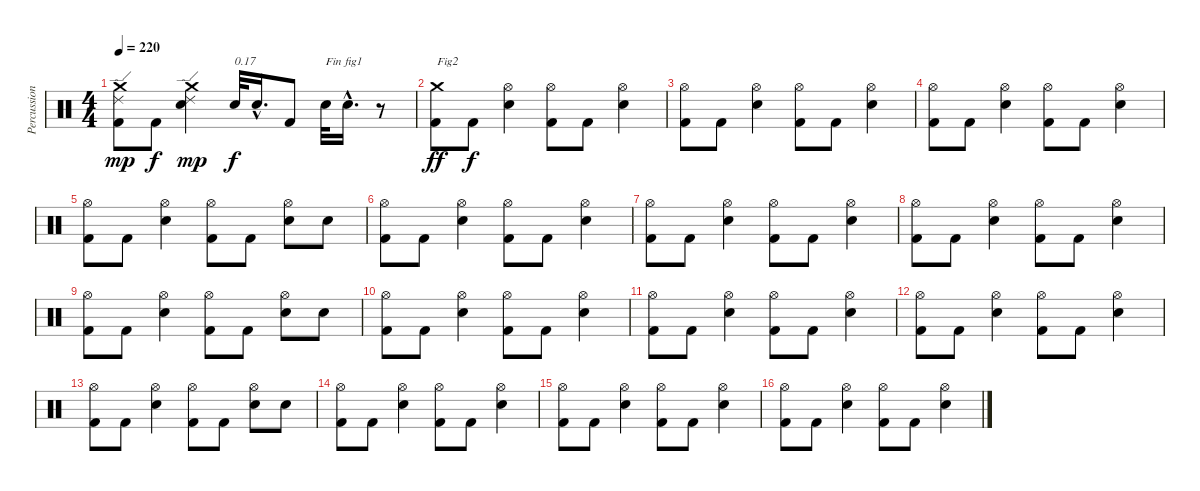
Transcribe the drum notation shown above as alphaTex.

\track ("Percussions" "Percussion") {instrument percussion}
\staff {score}
\articulation defaults
\ts (4 4)
\tempo 220
\clef neutral
\ks c
("Kick (hit) 2" "Ride (edge) 2" "Crash medium (hit)").8{dy mp} "Kick (hit) 2".8{dy f} ("Electric Snare (hit)" "Ride (edge) 2" "Crash medium (hit)").4{dy mp} "Electric Snare (hit)".32{txt "0.17" dy f} "Electric Snare (hit)"{hac}.16{d} "Kick (hit) 2".8 "Electric Snare (hit)".32{txt "Fin fig1"} "Electric Snare (hit)"{hac}.16{d} r.8 |
("Kick (hit) 2" "Crash medium (hit)").8{txt "Fig2" dy ff} "Kick (hit) 2".8{dy f} ("Electric Snare (hit)" "Hi-Hat (open)").4 ("Kick (hit) 2" "Hi-Hat (open)").8 "Kick (hit) 2".8 ("Electric Snare (hit)" "Hi-Hat (open)").4 |
("Kick (hit) 2" "Hi-Hat (open)").8 "Kick (hit) 2".8 ("Electric Snare (hit)" "Hi-Hat (open)").4 ("Kick (hit) 2" "Hi-Hat (open)").8 "Kick (hit) 2".8 ("Electric Snare (hit)" "Hi-Hat (open)").4 |
("Kick (hit) 2" "Hi-Hat (open)").8 "Kick (hit) 2".8 ("Electric Snare (hit)" "Hi-Hat (open)").4 ("Kick (hit) 2" "Hi-Hat (open)").8 "Kick (hit) 2".8 ("Electric Snare (hit)" "Hi-Hat (open)").4 |
("Kick (hit) 2" "Hi-Hat (open)").8 "Kick (hit) 2".8 ("Electric Snare (hit)" "Hi-Hat (open)").4 ("Kick (hit) 2" "Hi-Hat (open)").8 "Kick (hit) 2".8 ("Electric Snare (hit)" "Hi-Hat (open)").8 "Electric Snare (hit)".8 |
("Kick (hit) 2" "Hi-Hat (open)").8 "Kick (hit) 2".8 ("Electric Snare (hit)" "Hi-Hat (open)").4 ("Kick (hit) 2" "Hi-Hat (open)").8 "Kick (hit) 2".8 ("Electric Snare (hit)" "Hi-Hat (open)").4 |
("Kick (hit) 2" "Hi-Hat (open)").8 "Kick (hit) 2".8 ("Electric Snare (hit)" "Hi-Hat (open)").4 ("Kick (hit) 2" "Hi-Hat (open)").8 "Kick (hit) 2".8 ("Electric Snare (hit)" "Hi-Hat (open)").4 |
("Kick (hit) 2" "Hi-Hat (open)").8 "Kick (hit) 2".8 ("Electric Snare (hit)" "Hi-Hat (open)").4 ("Kick (hit) 2" "Hi-Hat (open)").8 "Kick (hit) 2".8 ("Electric Snare (hit)" "Hi-Hat (open)").4 |
("Kick (hit) 2" "Hi-Hat (open)").8 "Kick (hit) 2".8 ("Electric Snare (hit)" "Hi-Hat (open)").4 ("Kick (hit) 2" "Hi-Hat (open)").8 "Kick (hit) 2".8 ("Electric Snare (hit)" "Hi-Hat (open)").8 "Electric Snare (hit)".8 |
("Kick (hit) 2" "Hi-Hat (open)").8 "Kick (hit) 2".8 ("Electric Snare (hit)" "Hi-Hat (open)").4 ("Kick (hit) 2" "Hi-Hat (open)").8 "Kick (hit) 2".8 ("Electric Snare (hit)" "Hi-Hat (open)").4 |
("Kick (hit) 2" "Hi-Hat (open)").8 "Kick (hit) 2".8 ("Electric Snare (hit)" "Hi-Hat (open)").4 ("Kick (hit) 2" "Hi-Hat (open)").8 "Kick (hit) 2".8 ("Electric Snare (hit)" "Hi-Hat (open)").4 |
("Kick (hit) 2" "Hi-Hat (open)").8 "Kick (hit) 2".8 ("Electric Snare (hit)" "Hi-Hat (open)").4 ("Kick (hit) 2" "Hi-Hat (open)").8 "Kick (hit) 2".8 ("Electric Snare (hit)" "Hi-Hat (open)").4 |
("Kick (hit) 2" "Hi-Hat (open)").8 "Kick (hit) 2".8 ("Electric Snare (hit)" "Hi-Hat (open)").4 ("Kick (hit) 2" "Hi-Hat (open)").8 "Kick (hit) 2".8 ("Electric Snare (hit)" "Hi-Hat (open)").8 "Electric Snare (hit)".8 |
("Kick (hit) 2" "Hi-Hat (open)").8 "Kick (hit) 2".8 ("Electric Snare (hit)" "Hi-Hat (open)").4 ("Kick (hit) 2" "Hi-Hat (open)").8 "Kick (hit) 2".8 ("Electric Snare (hit)" "Hi-Hat (open)").4 |
("Kick (hit) 2" "Hi-Hat (open)").8 "Kick (hit) 2".8 ("Electric Snare (hit)" "Hi-Hat (open)").4 ("Kick (hit) 2" "Hi-Hat (open)").8 "Kick (hit) 2".8 ("Electric Snare (hit)" "Hi-Hat (open)").4 |
("Kick (hit) 2" "Hi-Hat (open)").8 "Kick (hit) 2".8 ("Electric Snare (hit)" "Hi-Hat (open)").4 ("Kick (hit) 2" "Hi-Hat (open)").8 "Kick (hit) 2".8 ("Electric Snare (hit)" "Hi-Hat (open)").4
